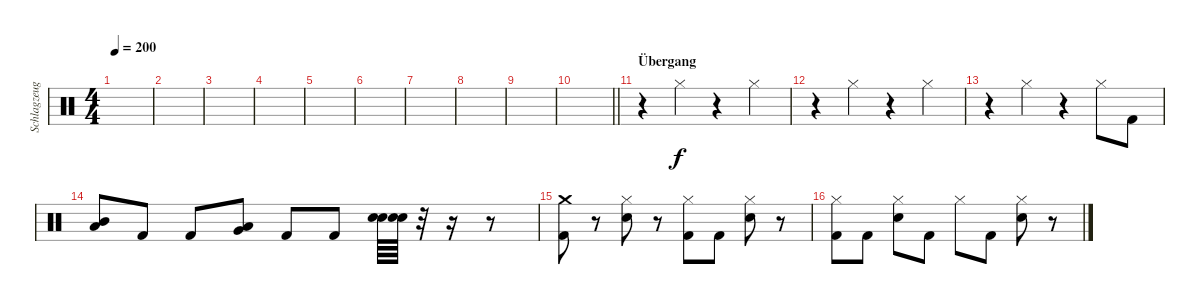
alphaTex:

\track ("Schlagzeug" "Schlagzeug") {instrument percussion}
\staff {score}
\articulation defaults
\ts (4 4)
\tempo 200
\clef neutral
\ks c
|
|
|
|
|
|
|
|
|
\barLineRight lightlight
|
\section ("" "Übergang")
r.4 "Hi-Hat (closed)".4 r.4 "Hi-Hat (closed)".4 |
r.4 "Hi-Hat (closed)".4 r.4 "Hi-Hat (closed)".4 |
r.4 "Hi-Hat (closed)".4 r.4 "Hi-Hat (closed)".8 "Kick (hit) 2".8 |
("Mid Tom (hit)" "Low Tom (hit)").8 "Kick (hit) 2".8 "Kick (hit) 2".8 ("Low Tom (hit)" "Very Low Tom (hit)").8 "Kick (hit) 2".8 "Kick (hit) 2".8 ("Electric Snare (hit)" "Electric Snare (hit)").64 ("Electric Snare (hit)" "Electric Snare (hit)").64 r.32 r.16 r.8 |
("Crash medium (hit)" "Kick (hit) 2").8 r.8 ("Hi-Hat (closed)" "Electric Snare (hit)").8 r.8 ("Hi-Hat (closed)" "Kick (hit) 2").8 "Kick (hit) 2".8 ("Hi-Hat (closed)" "Electric Snare (hit)").8 r.8 |
("Hi-Hat (closed)" "Kick (hit) 2").8 "Kick (hit) 2".8 ("Hi-Hat (closed)" "Electric Snare (hit)").8 "Kick (hit) 2".8 "Hi-Hat (closed)".8 "Kick (hit) 2".8 ("Hi-Hat (closed)" "Electric Snare (hit)").8 r.8
